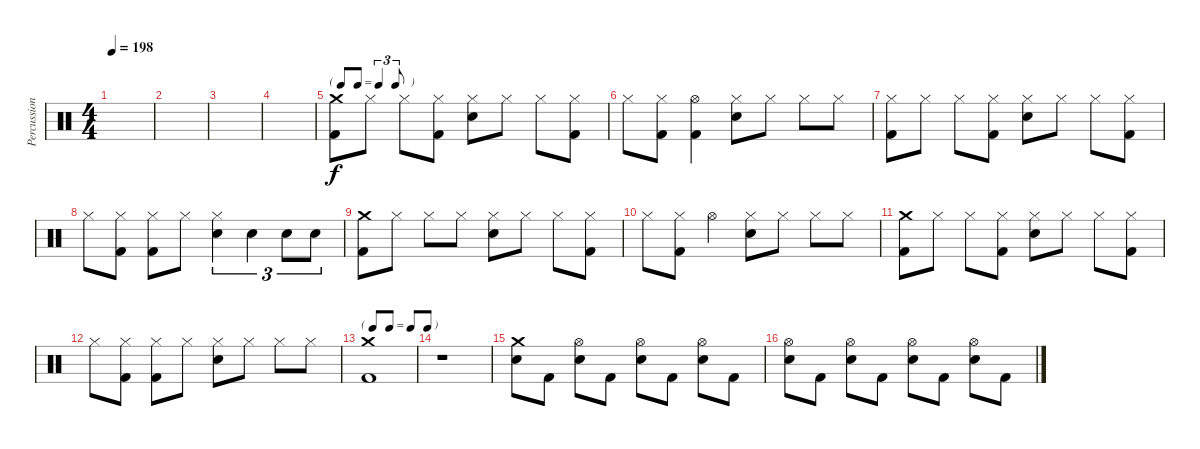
\track ("Percussion" "Percussion") {instrument percussion}
\staff {score}
\articulation defaults
\ts (4 4)
\tempo 198
\clef neutral
\ks c
|
|
|
|
\tf triplet8th
("Crash medium (hit)" "Kick (hit) 2").8 "Hi-Hat (closed)".8 "Hi-Hat (closed)".8 ("Hi-Hat (closed)" "Kick (hit) 2").8 ("Hi-Hat (closed)" "Electric Snare (hit)").8 "Hi-Hat (closed)".8 "Hi-Hat (closed)".8 ("Hi-Hat (closed)" "Kick (hit) 2").8 |
"Hi-Hat (closed)".8 ("Hi-Hat (closed)" "Kick (hit) 2").8 ("Hi-Hat (open)" "Kick (hit) 2").4 ("Hi-Hat (closed)" "Electric Snare (hit)").8 "Hi-Hat (closed)".8 "Hi-Hat (closed)".8 "Hi-Hat (closed)".8 |
("Hi-Hat (closed)" "Kick (hit) 2").8 "Hi-Hat (closed)".8 "Hi-Hat (closed)".8 ("Hi-Hat (closed)" "Kick (hit) 2").8 ("Hi-Hat (closed)" "Electric Snare (hit)").8 "Hi-Hat (closed)".8 "Hi-Hat (closed)".8 ("Hi-Hat (closed)" "Kick (hit) 2").8 |
"Hi-Hat (closed)".8 ("Hi-Hat (closed)" "Kick (hit) 2").8 ("Hi-Hat (closed)" "Kick (hit) 2").8 "Hi-Hat (closed)".8 ("Hi-Hat (closed)" "Electric Snare (hit)").4{tu (3 2)} "Electric Snare (hit)".4{tu (3 2)} "Electric Snare (hit)".8{tu (3 2)} "Electric Snare (hit)".8{tu (3 2)} |
("Crash medium (hit)" "Kick (hit) 2").8 "Hi-Hat (closed)".8 "Hi-Hat (closed)".8 "Hi-Hat (closed)".8 ("Hi-Hat (closed)" "Electric Snare (hit)").8 "Hi-Hat (closed)".8 "Hi-Hat (closed)".8 ("Hi-Hat (closed)" "Kick (hit) 2").8 |
"Hi-Hat (closed)".8 ("Hi-Hat (closed)" "Kick (hit) 2").8 "Hi-Hat (open)".4 ("Hi-Hat (closed)" "Electric Snare (hit)").8 "Hi-Hat (closed)".8 "Hi-Hat (closed)".8 "Hi-Hat (closed)".8 |
("Crash medium (hit)" "Kick (hit) 2").8 "Hi-Hat (closed)".8 "Hi-Hat (closed)".8 ("Hi-Hat (closed)" "Kick (hit) 2").8 ("Hi-Hat (closed)" "Electric Snare (hit)").8 "Hi-Hat (closed)".8 "Hi-Hat (closed)".8 ("Hi-Hat (closed)" "Kick (hit) 2").8 |
"Hi-Hat (closed)".8 ("Hi-Hat (closed)" "Kick (hit) 2").8 ("Hi-Hat (closed)" "Kick (hit) 2").8 "Hi-Hat (closed)".8 ("Hi-Hat (closed)" "Electric Snare (hit)").8 "Hi-Hat (closed)".8 "Hi-Hat (closed)".8 "Hi-Hat (closed)".8 |
\tf none
("Crash medium (hit)" "Kick (hit) 2").1 |
r.1 |
("Crash medium (hit)" "Electric Snare (hit)").8 "Kick (hit) 2".8 ("Hi-Hat (open)" "Electric Snare (hit)").8 "Kick (hit) 2".8 ("Hi-Hat (open)" "Electric Snare (hit)").8 "Kick (hit) 2".8 ("Hi-Hat (open)" "Electric Snare (hit)").8 "Kick (hit) 2".8 |
("Hi-Hat (open)" "Electric Snare (hit)").8 "Kick (hit) 2".8 ("Hi-Hat (open)" "Electric Snare (hit)").8 "Kick (hit) 2".8 ("Hi-Hat (open)" "Electric Snare (hit)").8 "Kick (hit) 2".8 ("Hi-Hat (open)" "Electric Snare (hit)").8 "Kick (hit) 2".8
